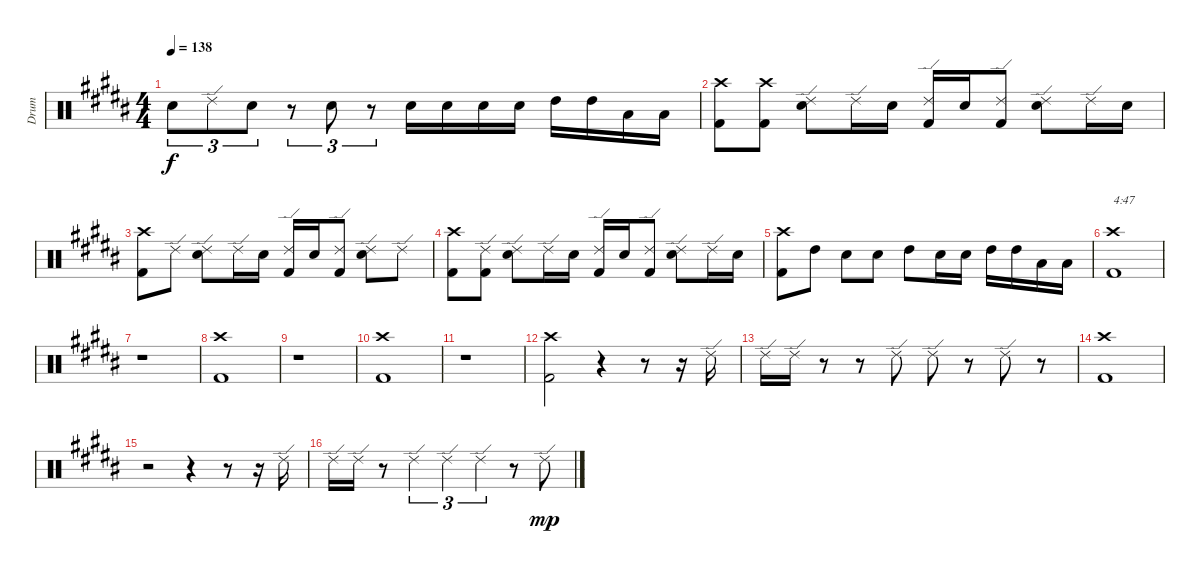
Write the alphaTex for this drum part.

\track ("Drum" "Drum") {instrument percussion}
\staff {score}
\articulation defaults
\ts (4 4)
\tempo 138
\clef neutral
\ks g#minor "Electric Snare (hit)".8{tu (3 2) dy f} "Ride (edge) 2".8{tu (3 2)} "Electric Snare (hit)".8{tu (3 2)}
r.8{tu (3 2)} "Electric Snare (hit)".8{tu (3 2)} r.8{tu (3 2)} "Electric Snare (hit)".16 "Electric Snare (hit)".16 "Electric Snare (hit)".16 "Electric Snare (hit)".16 "High Tom (hit)".16 "High Tom (hit)".16 "Low Floor Tom (hit)".16 "Low Floor Tom (hit)".16 |
\ks b
("Crash high (hit)" "Kick (hit) 2").8 ("Crash high (hit)" "Kick (hit) 2").8 ("Ride (edge) 2" "Electric Snare (hit)").8 "Ride (edge) 2".16 "Electric Snare (hit)".16 ("Ride (edge) 2" "Kick (hit) 2").16 "Electric Snare (hit)".16 ("Ride (edge) 2" "Kick (hit) 2").8 ("Ride (edge) 2" "Electric Snare (hit)").8 "Ride (edge) 2".16 "Electric Snare (hit)".16 |
\ks g#minor
("Crash high (hit)" "Kick (hit) 2").8 "Ride (edge) 2".8 ("Ride (edge) 2" "Electric Snare (hit)").8 "Ride (edge) 2".16 "Electric Snare (hit)".16 ("Ride (edge) 2" "Kick (hit) 2").16 "Electric Snare (hit)".16 ("Ride (edge) 2" "Kick (hit) 2").8 ("Ride (edge) 2" "Electric Snare (hit)").8 "Ride (edge) 2".8 |
\ks b
("Crash high (hit)" "Kick (hit) 2").8 ("Ride (edge) 2" "Kick (hit) 2").8 ("Ride (edge) 2" "Electric Snare (hit)").8 "Ride (edge) 2".16 "Electric Snare (hit)".16 ("Ride (edge) 2" "Kick (hit) 2").16 "Electric Snare (hit)".16 ("Ride (edge) 2" "Kick (hit) 2").8 ("Ride (edge) 2" "Electric Snare (hit)").8 "Ride (edge) 2".16 "Electric Snare (hit)".16 |
\ks g#minor
("Crash high (hit)" "Kick (hit) 2").8 "High Tom (hit)".8 "Electric Snare (hit)".8 "Electric Snare (hit)".8 "High Tom (hit)".8 "Electric Snare (hit)".16 "Electric Snare (hit)".16 "High Tom (hit)".16 "High Tom (hit)".16 "Low Floor Tom (hit)".16 "Low Floor Tom (hit)".16 |
\ks b
("Crash high (hit)" "Kick (hit) 2").1{txt "4:47"} |
\ks g#minor
r.1 |
("Crash high (hit)" "Kick (hit) 2").1 |
r.1 |
\ks b
("Crash high (hit)" "Kick (hit) 2").1 |
\ks g#minor
r.1 |
("Crash high (hit)" "Kick (hit) 2").2 r.4 r.8 r.16 "Ride (edge) 2".16 |
"Ride (edge) 2".16 "Ride (edge) 2".16 r.8 r.8 "Ride (edge) 2".8 "Ride (edge) 2".8 r.8 "Ride (edge) 2".8 r.8 |
\ks b
("Crash high (hit)" "Kick (hit) 2").1 |
\ks g#minor
r.2 r.4 r.8 r.16 "Ride (edge) 2".16 |
"Ride (edge) 2".16 "Ride (edge) 2".16 r.8 "Ride (edge) 2".4{tu (3 2)} "Ride (edge) 2".4{tu (3 2)} "Ride (edge) 2".4{tu (3 2)} r.8 "Ride (edge) 2".8{dy mp}
